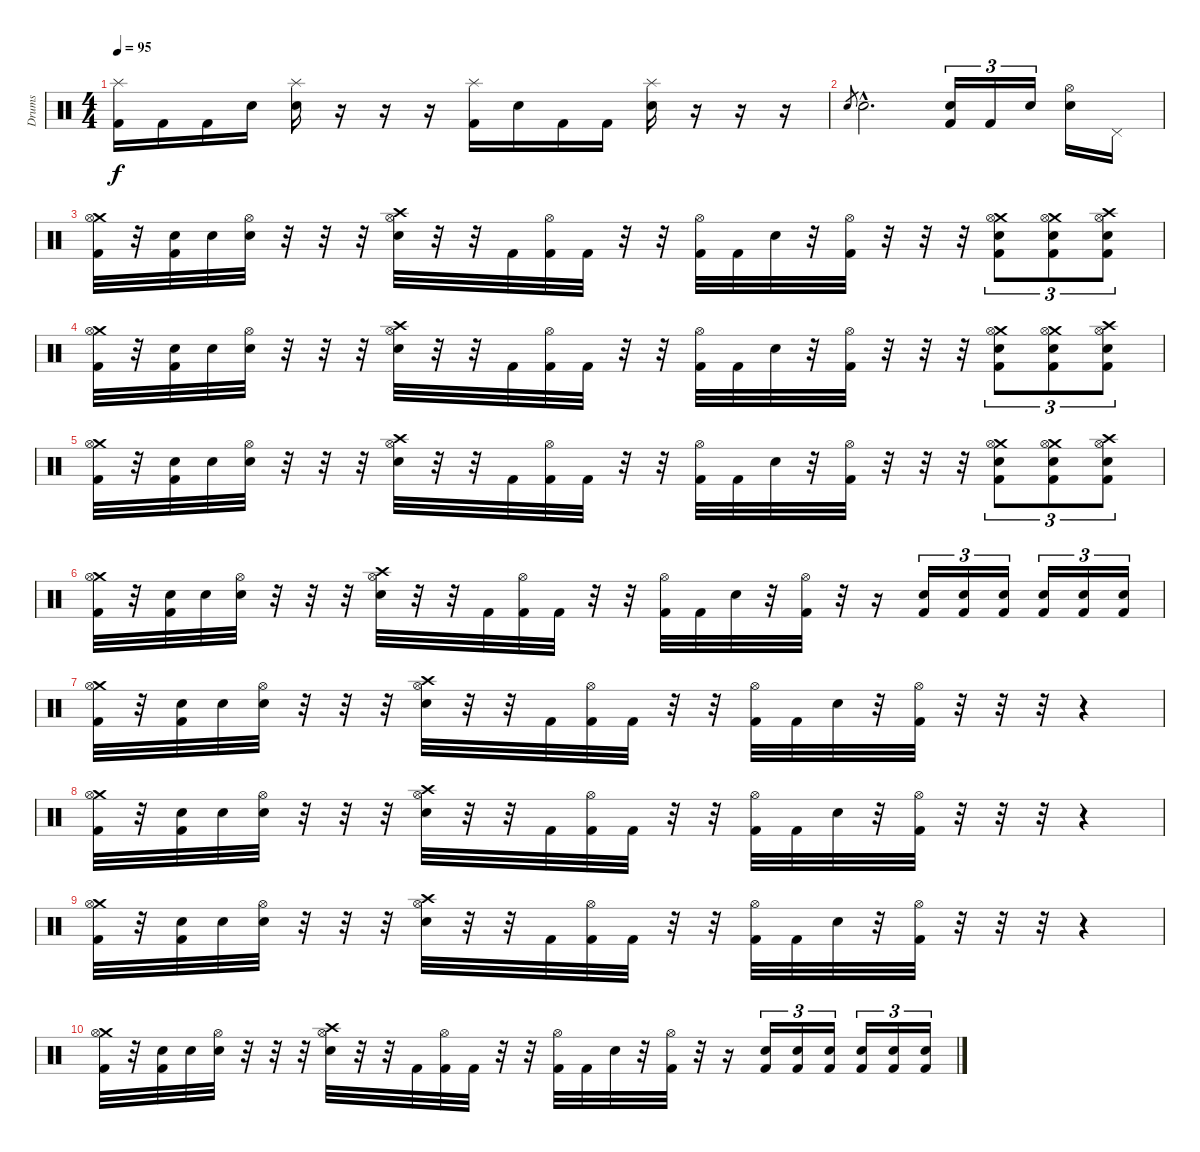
\track ("Drums" "Drums") {instrument percussion}
\staff {score}
\articulation defaults
\ts (4 4)
\tempo 95
\clef neutral
\ks c
("Splash (hit)" "Kick (hit) 2").16{dy f} "Kick (hit) 2".16 "Kick (hit) 2".16 "Electric Snare (hit)".16 ("Splash (hit)" "Electric Snare (hit)").16 r.16 r.16 r.16 ("Splash (hit)" "Kick (hit) 2").16 "Electric Snare (hit)".16 "Kick (hit) 2".16 "Kick (hit) 2".16 ("Splash (hit)" "Electric Snare (hit)").16 r.16 r.16 r.16 |
"Electric Snare (hit)".8{gr} "Electric Snare (hit)"{hac}.2{d} ("Electric Snare (hit)" "Kick (hit) 2").16{tu (3 2)} "Kick (hit) 2".16{tu (3 2)} "Electric Snare (hit)".16{tu (3 2)} ("Hi-Hat (open)" "Electric Snare (hit)").16 "Pedal Hi-Hat (hit)".16 |
("Crash medium (hit)" "Hi-Hat (open)" "Kick (hit) 2").32 r.32 ("Electric Snare (hit)" "Kick (hit) 2").32 "Electric Snare (hit)".32 ("Electric Snare (hit)" "Hi-Hat (open)").32 r.32 r.32 r.32 ("Crash high (hit)" "Hi-Hat (open)" "Electric Snare (hit)").32 r.32 r.32 "Kick (hit) 2".32 ("Hi-Hat (open)" "Kick (hit) 2").32 "Kick (hit) 2".32 r.32 r.32 ("Hi-Hat (open)" "Kick (hit) 2").32 "Kick (hit) 2".32 "Electric Snare (hit)".32 r.32 ("Hi-Hat (open)" "Kick (hit) 2").32 r.32 r.32 r.32 ("Crash medium (hit)" "Hi-Hat (open)" "Electric Snare (hit)" "Kick (hit) 2").8{tu (3 2)} ("Crash medium (hit)" "Hi-Hat (open)" "Electric Snare (hit)" "Kick (hit) 2").8{tu (3 2)} ("Crash high (hit)" "Hi-Hat (open)" "Electric Snare (hit)" "Kick (hit) 2").8{tu (3 2)} |
("Crash medium (hit)" "Hi-Hat (open)" "Kick (hit) 2").32 r.32 ("Electric Snare (hit)" "Kick (hit) 2").32 "Electric Snare (hit)".32 ("Electric Snare (hit)" "Hi-Hat (open)").32 r.32 r.32 r.32 ("Crash high (hit)" "Hi-Hat (open)" "Electric Snare (hit)").32 r.32 r.32 "Kick (hit) 2".32 ("Hi-Hat (open)" "Kick (hit) 2").32 "Kick (hit) 2".32 r.32 r.32 ("Hi-Hat (open)" "Kick (hit) 2").32 "Kick (hit) 2".32 "Electric Snare (hit)".32 r.32 ("Hi-Hat (open)" "Kick (hit) 2").32 r.32 r.32 r.32 ("Crash medium (hit)" "Hi-Hat (open)" "Electric Snare (hit)" "Kick (hit) 2").8{tu (3 2)} ("Crash medium (hit)" "Hi-Hat (open)" "Electric Snare (hit)" "Kick (hit) 2").8{tu (3 2)} ("Crash high (hit)" "Hi-Hat (open)" "Electric Snare (hit)" "Kick (hit) 2").8{tu (3 2)} |
("Crash medium (hit)" "Hi-Hat (open)" "Kick (hit) 2").32 r.32 ("Electric Snare (hit)" "Kick (hit) 2").32 "Electric Snare (hit)".32 ("Electric Snare (hit)" "Hi-Hat (open)").32 r.32 r.32 r.32 ("Crash high (hit)" "Hi-Hat (open)" "Electric Snare (hit)").32 r.32 r.32 "Kick (hit) 2".32 ("Hi-Hat (open)" "Kick (hit) 2").32 "Kick (hit) 2".32 r.32 r.32 ("Hi-Hat (open)" "Kick (hit) 2").32 "Kick (hit) 2".32 "Electric Snare (hit)".32 r.32 ("Hi-Hat (open)" "Kick (hit) 2").32 r.32 r.32 r.32 ("Crash medium (hit)" "Hi-Hat (open)" "Electric Snare (hit)" "Kick (hit) 2").8{tu (3 2)} ("Crash medium (hit)" "Hi-Hat (open)" "Electric Snare (hit)" "Kick (hit) 2").8{tu (3 2)} ("Crash high (hit)" "Hi-Hat (open)" "Electric Snare (hit)" "Kick (hit) 2").8{tu (3 2)} |
("Crash medium (hit)" "Hi-Hat (open)" "Kick (hit) 2").32 r.32 ("Electric Snare (hit)" "Kick (hit) 2").32 "Electric Snare (hit)".32 ("Electric Snare (hit)" "Hi-Hat (open)").32 r.32 r.32 r.32 ("Crash high (hit)" "Hi-Hat (open)" "Electric Snare (hit)").32 r.32 r.32 "Kick (hit) 2".32 ("Hi-Hat (open)" "Kick (hit) 2").32 "Kick (hit) 2".32 r.32 r.32 ("Hi-Hat (open)" "Kick (hit) 2").32 "Kick (hit) 2".32 "Electric Snare (hit)".32 r.32 ("Hi-Hat (open)" "Kick (hit) 2").32 r.32 r.16 ("Electric Snare (hit)" "Kick (hit) 2").16{tu (3 2)} ("Electric Snare (hit)" "Kick (hit) 2").16{tu (3 2)} ("Electric Snare (hit)" "Kick (hit) 2").16{tu (3 2)} ("Electric Snare (hit)" "Kick (hit) 2").16{tu (3 2)} ("Electric Snare (hit)" "Kick (hit) 2").16{tu (3 2)} ("Electric Snare (hit)" "Kick (hit) 2").16{tu (3 2)} |
("Crash medium (hit)" "Hi-Hat (open)" "Kick (hit) 2").32 r.32 ("Electric Snare (hit)" "Kick (hit) 2").32 "Electric Snare (hit)".32 ("Electric Snare (hit)" "Hi-Hat (open)").32 r.32 r.32 r.32 ("Crash high (hit)" "Hi-Hat (open)" "Electric Snare (hit)").32 r.32 r.32 "Kick (hit) 2".32 ("Hi-Hat (open)" "Kick (hit) 2").32 "Kick (hit) 2".32 r.32 r.32 ("Hi-Hat (open)" "Kick (hit) 2").32 "Kick (hit) 2".32 "Electric Snare (hit)".32 r.32 ("Hi-Hat (open)" "Kick (hit) 2").32 r.32 r.32 r.32 r.4 |
("Crash medium (hit)" "Hi-Hat (open)" "Kick (hit) 2").32 r.32 ("Electric Snare (hit)" "Kick (hit) 2").32 "Electric Snare (hit)".32 ("Electric Snare (hit)" "Hi-Hat (open)").32 r.32 r.32 r.32 ("Crash high (hit)" "Hi-Hat (open)" "Electric Snare (hit)").32 r.32 r.32 "Kick (hit) 2".32 ("Hi-Hat (open)" "Kick (hit) 2").32 "Kick (hit) 2".32 r.32 r.32 ("Hi-Hat (open)" "Kick (hit) 2").32 "Kick (hit) 2".32 "Electric Snare (hit)".32 r.32 ("Hi-Hat (open)" "Kick (hit) 2").32 r.32 r.32 r.32 r.4 |
("Crash medium (hit)" "Hi-Hat (open)" "Kick (hit) 2").32 r.32 ("Electric Snare (hit)" "Kick (hit) 2").32 "Electric Snare (hit)".32 ("Electric Snare (hit)" "Hi-Hat (open)").32 r.32 r.32 r.32 ("Crash high (hit)" "Hi-Hat (open)" "Electric Snare (hit)").32 r.32 r.32 "Kick (hit) 2".32 ("Hi-Hat (open)" "Kick (hit) 2").32 "Kick (hit) 2".32 r.32 r.32 ("Hi-Hat (open)" "Kick (hit) 2").32 "Kick (hit) 2".32 "Electric Snare (hit)".32 r.32 ("Hi-Hat (open)" "Kick (hit) 2").32 r.32 r.32 r.32 r.4 |
("Crash medium (hit)" "Hi-Hat (open)" "Kick (hit) 2").32 r.32 ("Electric Snare (hit)" "Kick (hit) 2").32 "Electric Snare (hit)".32 ("Electric Snare (hit)" "Hi-Hat (open)").32 r.32 r.32 r.32 ("Crash high (hit)" "Hi-Hat (open)" "Electric Snare (hit)").32 r.32 r.32 "Kick (hit) 2".32 ("Hi-Hat (open)" "Kick (hit) 2").32 "Kick (hit) 2".32 r.32 r.32 ("Hi-Hat (open)" "Kick (hit) 2").32 "Kick (hit) 2".32 "Electric Snare (hit)".32 r.32 ("Hi-Hat (open)" "Kick (hit) 2").32 r.32 r.16 ("Electric Snare (hit)" "Kick (hit) 2").16{tu (3 2)} ("Electric Snare (hit)" "Kick (hit) 2").16{tu (3 2)} ("Electric Snare (hit)" "Kick (hit) 2").16{tu (3 2)} ("Electric Snare (hit)" "Kick (hit) 2").16{tu (3 2)} ("Electric Snare (hit)" "Kick (hit) 2").16{tu (3 2)} ("Electric Snare (hit)" "Kick (hit) 2").16{tu (3 2)}
